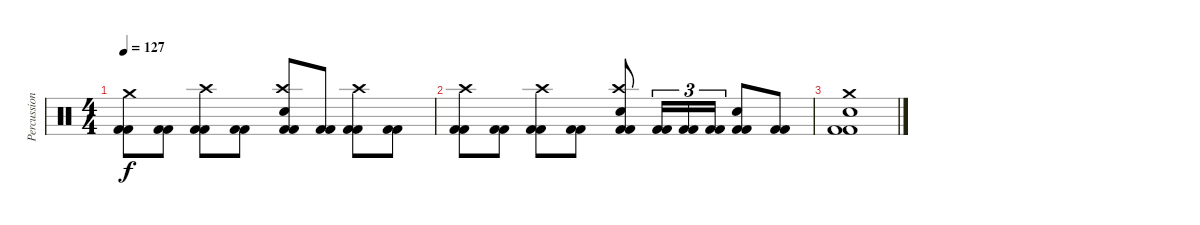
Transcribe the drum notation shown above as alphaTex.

\track ("Percussion" "Percussion") {instrument percussion}
\staff {score}
\articulation defaults
\ts (4 4)
\tempo 127
\clef neutral
\ks c
("Crash medium (hit)" "Kick (hit) 2" "Kick (hit) 2").8{dy f} ("Kick (hit) 2" "Kick (hit) 2").8 ("Crash high (hit)" "Kick (hit) 2" "Kick (hit) 2").8 ("Kick (hit) 2" "Kick (hit) 2").8 ("Crash high (hit)" "Electric Snare (hit)" "Kick (hit) 2" "Kick (hit) 2").8 ("Kick (hit) 2" "Kick (hit) 2").8 ("Crash high (hit)" "Kick (hit) 2" "Kick (hit) 2").8 ("Kick (hit) 2" "Kick (hit) 2").8 |
("Crash high (hit)" "Kick (hit) 2" "Kick (hit) 2").8 ("Kick (hit) 2" "Kick (hit) 2").8 ("Crash high (hit)" "Kick (hit) 2" "Kick (hit) 2").8 ("Kick (hit) 2" "Kick (hit) 2").8 ("Crash high (hit)" "Electric Snare (hit)" "Kick (hit) 2" "Kick (hit) 2").8 ("Kick (hit) 2" "Kick (hit) 2").16{tu (3 2)} ("Kick (hit) 2" "Kick (hit) 2").16{tu (3 2)} ("Kick (hit) 2" "Kick (hit) 2").16{tu (3 2)} ("Electric Snare (hit)" "Kick (hit) 2" "Kick (hit) 2").8 ("Kick (hit) 2" "Kick (hit) 2").8 |
("Crash medium (hit)" "Electric Snare (hit)" "Kick (hit) 2" "Kick (hit) 2").1
